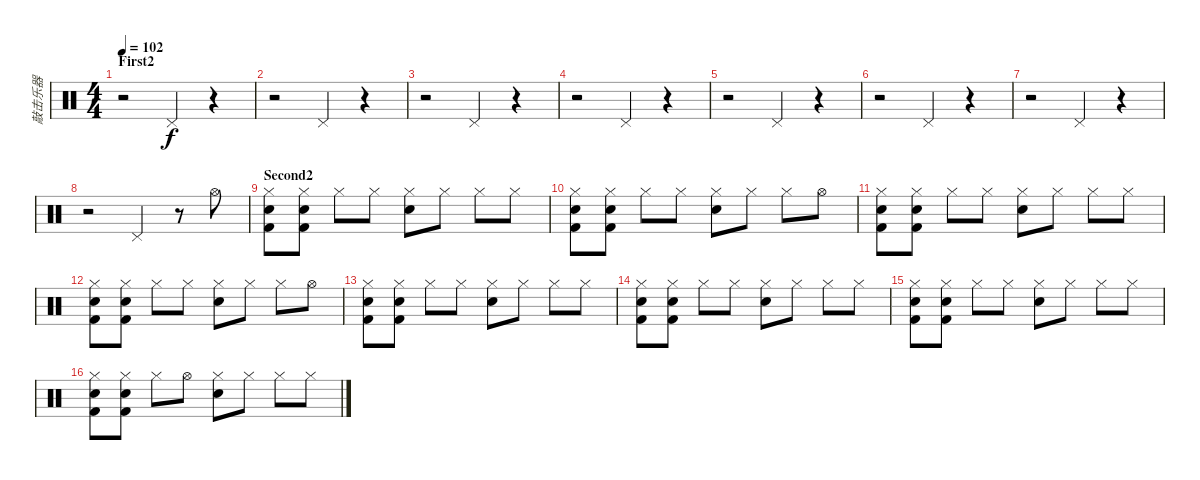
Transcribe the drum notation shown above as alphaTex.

\track ("敲击乐器" "敲击乐器") {instrument percussion}
\staff {score}
\articulation defaults
\ts (4 4)
\section ("" "First2")
\tempo 102
\clef neutral
\ks c
r.2{dy fff} "Pedal Hi-Hat (hit)".4{dy f} r.4 |
r.2 "Pedal Hi-Hat (hit)".4 r.4 |
r.2 "Pedal Hi-Hat (hit)".4 r.4 |
r.2 "Pedal Hi-Hat (hit)".4 r.4 |
r.2 "Pedal Hi-Hat (hit)".4 r.4 |
r.2 "Pedal Hi-Hat (hit)".4 r.4 |
r.2 "Pedal Hi-Hat (hit)".4 r.4 |
r.2 "Pedal Hi-Hat (hit)".4 r.8 "Hi-Hat (open)".8 |
\section ("" "Second2")
("Hi-Hat (closed)" "Kick (hit) 2" "Snare (hit)").8 ("Hi-Hat (closed)" "Kick (hit) 2" "Snare (hit)").8 "Hi-Hat (closed)".8 "Hi-Hat (closed)".8 ("Hi-Hat (closed)" "Metronome (bell)").8 "Hi-Hat (closed)".8 "Hi-Hat (closed)".8 "Hi-Hat (closed)".8 |
("Hi-Hat (closed)" "Kick (hit) 2" "Snare (hit)").8 ("Hi-Hat (closed)" "Kick (hit) 2" "Snare (hit)").8 "Hi-Hat (closed)".8 "Hi-Hat (closed)".8 ("Hi-Hat (closed)" "Metronome (bell)").8 "Hi-Hat (closed)".8 "Hi-Hat (closed)".8 "Hi-Hat (open)".8 |
("Hi-Hat (closed)" "Kick (hit) 2" "Snare (hit)").8 ("Hi-Hat (closed)" "Kick (hit) 2" "Snare (hit)").8 "Hi-Hat (closed)".8 "Hi-Hat (closed)".8 ("Hi-Hat (closed)" "Metronome (bell)").8 "Hi-Hat (closed)".8 "Hi-Hat (closed)".8 "Hi-Hat (closed)".8 |
("Hi-Hat (closed)" "Kick (hit) 2" "Snare (hit)").8 ("Hi-Hat (closed)" "Kick (hit) 2" "Snare (hit)").8 "Hi-Hat (closed)".8 "Hi-Hat (closed)".8 ("Hi-Hat (closed)" "Metronome (bell)").8 "Hi-Hat (closed)".8 "Hi-Hat (closed)".8 "Hi-Hat (open)".8 |
("Hi-Hat (closed)" "Kick (hit) 2" "Snare (hit)").8 ("Hi-Hat (closed)" "Kick (hit) 2" "Snare (hit)").8 "Hi-Hat (closed)".8 "Hi-Hat (closed)".8 ("Hi-Hat (closed)" "Metronome (bell)").8 "Hi-Hat (closed)".8 "Hi-Hat (closed)".8 "Hi-Hat (closed)".8 |
("Hi-Hat (closed)" "Kick (hit) 2" "Snare (hit)").8 ("Hi-Hat (closed)" "Kick (hit) 2" "Snare (hit)").8 "Hi-Hat (closed)".8 "Hi-Hat (closed)".8 ("Hi-Hat (closed)" "Metronome (bell)").8 "Hi-Hat (closed)".8 "Hi-Hat (closed)".8 "Hi-Hat (closed)".8 |
("Hi-Hat (closed)" "Kick (hit) 2" "Snare (hit)").8 ("Hi-Hat (closed)" "Kick (hit) 2" "Snare (hit)").8 "Hi-Hat (closed)".8 "Hi-Hat (closed)".8 ("Hi-Hat (closed)" "Metronome (bell)").8 "Hi-Hat (closed)".8 "Hi-Hat (closed)".8 "Hi-Hat (closed)".8 |
("Hi-Hat (closed)" "Kick (hit) 2" "Snare (hit)").8 ("Hi-Hat (closed)" "Kick (hit) 2" "Snare (hit)").8 "Hi-Hat (closed)".8 "Hi-Hat (open)".8 ("Hi-Hat (closed)" "Metronome (bell)").8 "Hi-Hat (closed)".8 "Hi-Hat (closed)".8 "Hi-Hat (closed)".8
